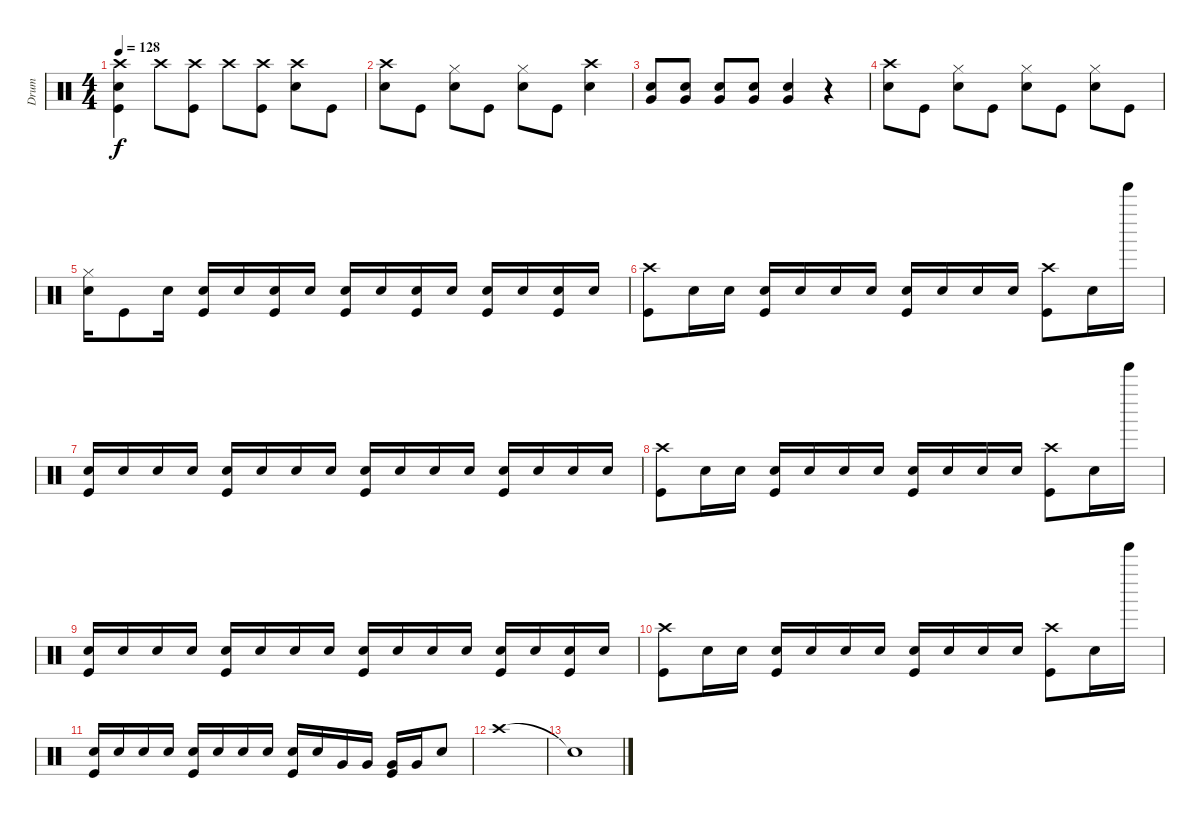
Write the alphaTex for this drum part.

\track ("Drum" "Drum") {instrument percussion}
\staff {score}
\articulation defaults
\ts (4 4)
\tempo 128
\clef neutral
\ks c
("Crash high (hit)" "Snare (hit) 2" "Kick (hit)").4{dy f} "Crash high (hit)".8 ("Crash high (hit)" "Kick (hit)").8 "Crash high (hit)".8 ("Crash high (hit)" "Kick (hit)").8 ("Crash high (hit)" "Snare (hit) 2").8 "Kick (hit)".8 |
("Crash high (hit)" "Snare (hit) 2").8 "Kick (hit)".8 ("Hi-Hat (closed)" "Snare (hit) 2").8 "Kick (hit)".8 ("Hi-Hat (closed)" "Snare (hit) 2").8 "Kick (hit)".8 ("Crash high (hit)" "Snare (hit) 2").4 |
("Very Low Tom (hit)" "Snare (hit) 2").8 ("Very Low Tom (hit)" "Snare (hit) 2").8 ("Very Low Tom (hit)" "Snare (hit) 2").8 ("Very Low Tom (hit)" "Snare (hit) 2").8 ("Very Low Tom (hit)" "Snare (hit) 2").4 r.4 |
("Crash high (hit)" "Snare (hit) 2").8 "Kick (hit)".8 ("Hi-Hat (closed)" "Snare (hit) 2").8 "Kick (hit)".8 ("Hi-Hat (closed)" "Snare (hit) 2").8 "Kick (hit)".8 ("Hi-Hat (closed)" "Snare (hit) 2").8 "Kick (hit)".8 |
("Hi-Hat (closed)" "Snare (hit) 2").16 "Kick (hit)".8 "Snare (hit) 2".16 ("Snare (hit) 2" "Kick (hit)").16 "Snare (hit) 2".16 ("Snare (hit) 2" "Kick (hit)").16 "Snare (hit) 2".16 ("Snare (hit) 2" "Kick (hit)").16 "Snare (hit) 2".16 ("Snare (hit) 2" "Kick (hit)").16 "Snare (hit) 2".16 ("Snare (hit) 2" "Kick (hit)").16 "Snare (hit) 2".16 ("Snare (hit) 2" "Kick (hit)").16 "Snare (hit) 2".16 |
("Crash high (hit)" "Kick (hit)").8 "Snare (hit) 2".16 "Snare (hit) 2".16 ("Snare (hit) 2" "Kick (hit)").16 "Snare (hit) 2".16 "Snare (hit) 2".16 "Snare (hit) 2".16 ("Snare (hit) 2" "Kick (hit)").16 "Snare (hit) 2".16 "Snare (hit) 2".16 "Snare (hit) 2".16 ("Crash high (hit)" "Kick (hit)").8 "Snare (hit) 2".16 "Tinkle Bell (hit)".16 |
("Snare (hit) 2" "Kick (hit)").16 "Snare (hit) 2".16 "Snare (hit) 2".16 "Snare (hit) 2".16 ("Snare (hit) 2" "Kick (hit)").16 "Snare (hit) 2".16 "Snare (hit) 2".16 "Snare (hit) 2".16 ("Snare (hit) 2" "Kick (hit)").16 "Snare (hit) 2".16 "Snare (hit) 2".16 "Snare (hit) 2".16 ("Snare (hit) 2" "Kick (hit)").16 "Snare (hit) 2".16 "Snare (hit) 2".16 "Snare (hit) 2".16 |
("Crash high (hit)" "Kick (hit)").8 "Snare (hit) 2".16 "Snare (hit) 2".16 ("Snare (hit) 2" "Kick (hit)").16 "Snare (hit) 2".16 "Snare (hit) 2".16 "Snare (hit) 2".16 ("Snare (hit) 2" "Kick (hit)").16 "Snare (hit) 2".16 "Snare (hit) 2".16 "Snare (hit) 2".16 ("Crash high (hit)" "Kick (hit)").8 "Snare (hit) 2".16 "Tinkle Bell (hit)".16 |
("Snare (hit) 2" "Kick (hit)").16 "Snare (hit) 2".16 "Snare (hit) 2".16 "Snare (hit) 2".16 ("Snare (hit) 2" "Kick (hit)").16 "Snare (hit) 2".16 "Snare (hit) 2".16 "Snare (hit) 2".16 ("Snare (hit) 2" "Kick (hit)").16 "Snare (hit) 2".16 "Snare (hit) 2".16 "Snare (hit) 2".16 ("Snare (hit) 2" "Kick (hit)").16 "Snare (hit) 2".16 ("Snare (hit) 2" "Kick (hit)").16 "Snare (hit) 2".16 |
("Crash high (hit)" "Kick (hit)").8 "Snare (hit) 2".16 "Snare (hit) 2".16 ("Snare (hit) 2" "Kick (hit)").16 "Snare (hit) 2".16 "Snare (hit) 2".16 "Snare (hit) 2".16 ("Snare (hit) 2" "Kick (hit)").16 "Snare (hit) 2".16 "Snare (hit) 2".16 "Snare (hit) 2".16 ("Crash high (hit)" "Kick (hit)").8 "Snare (hit) 2".16 "Tinkle Bell (hit)".16 |
("Snare (hit) 2" "Kick (hit)").16 "Snare (hit) 2".16 "Snare (hit) 2".16 "Snare (hit) 2".16 ("Snare (hit) 2" "Kick (hit)").16 "Snare (hit) 2".16 "Snare (hit) 2".16 "Snare (hit) 2".16 ("Snare (hit) 2" "Kick (hit)").16 "Snare (hit) 2".16 "Very Low Tom (hit)".16 "Very Low Tom (hit)".16 ("Very Low Tom (hit)" "Kick (hit)").16 "Very Low Tom (hit)".16 "Snare (hit) 2".8 |
"Crash high (hit)".1 |
"Snare (hit)"{t}.1
